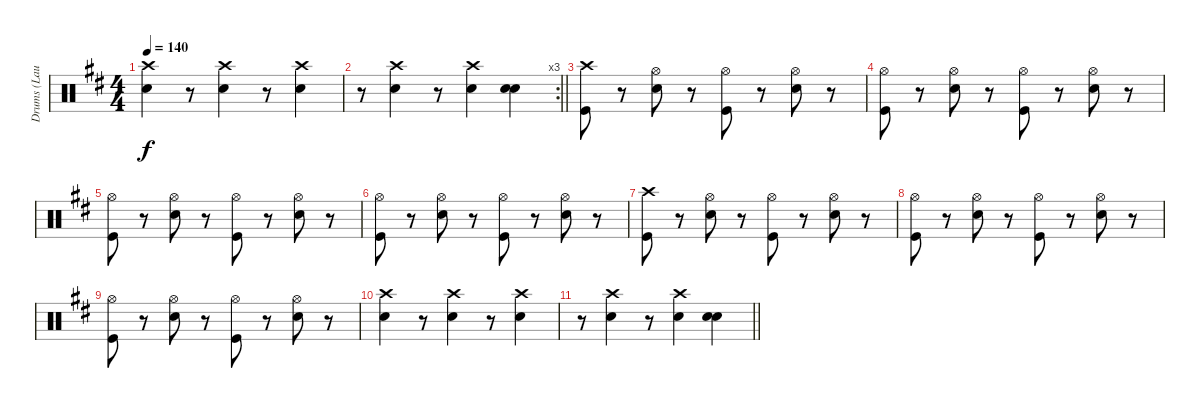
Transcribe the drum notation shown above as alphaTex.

\track ("Drums (Laust Sonne)" "Drums (Lau") {instrument percussion}
\staff {score}
\articulation defaults
\ts (4 4)
\tempo 140
\clef neutral
\ks d
("Crash high (hit)" "Snare (hit) 2").4{dy f} r.8 ("Crash high (hit)" "Snare (hit) 2").4 r.8 ("Crash high (hit)" "Snare (hit) 2").4 |
\rc 3
\barLineRight lightlight
r.8 ("Crash high (hit)" "Snare (hit) 2").4 r.8 ("Crash high (hit)" "Snare (hit) 2").4 ("Snare (hit) 2" "Snare (hit) 2").4 |
("Crash high (hit)" "Kick (hit)").8 r.8 ("Hi-Hat (open)" "Snare (hit) 2").8 r.8 ("Hi-Hat (open)" "Kick (hit)").8 r.8 ("Hi-Hat (open)" "Snare (hit) 2").8 r.8 |
("Hi-Hat (open)" "Kick (hit)").8 r.8 ("Hi-Hat (open)" "Snare (hit) 2").8 r.8 ("Hi-Hat (open)" "Kick (hit)").8 r.8 ("Hi-Hat (open)" "Snare (hit) 2").8 r.8 |
("Hi-Hat (open)" "Kick (hit)").8 r.8 ("Hi-Hat (open)" "Snare (hit) 2").8 r.8 ("Hi-Hat (open)" "Kick (hit)").8 r.8 ("Hi-Hat (open)" "Snare (hit) 2").8 r.8 |
("Hi-Hat (open)" "Kick (hit)").8 r.8 ("Hi-Hat (open)" "Snare (hit) 2").8 r.8 ("Hi-Hat (open)" "Kick (hit)").8 r.8 ("Hi-Hat (open)" "Snare (hit) 2").8 r.8 |
("Crash high (hit)" "Kick (hit)").8 r.8 ("Hi-Hat (open)" "Snare (hit) 2").8 r.8 ("Hi-Hat (open)" "Kick (hit)").8 r.8 ("Hi-Hat (open)" "Snare (hit) 2").8 r.8 |
("Hi-Hat (open)" "Kick (hit)").8 r.8 ("Hi-Hat (open)" "Snare (hit) 2").8 r.8 ("Hi-Hat (open)" "Kick (hit)").8 r.8 ("Hi-Hat (open)" "Snare (hit) 2").8 r.8 |
("Hi-Hat (open)" "Kick (hit)").8{volume 0} r.8 ("Hi-Hat (open)" "Snare (hit) 2").8 r.8 ("Hi-Hat (open)" "Kick (hit)").8 r.8 ("Hi-Hat (open)" "Snare (hit) 2").8 r.8 |
("Crash high (hit)" "Snare (hit) 2").4 r.8 ("Crash high (hit)" "Snare (hit) 2").4 r.8 ("Crash high (hit)" "Snare (hit) 2").4 |
\barLineRight lightlight
r.8 ("Crash high (hit)" "Snare (hit) 2").4 r.8 ("Crash high (hit)" "Snare (hit) 2").4 ("Snare (hit) 2" "Snare (hit) 2").4
